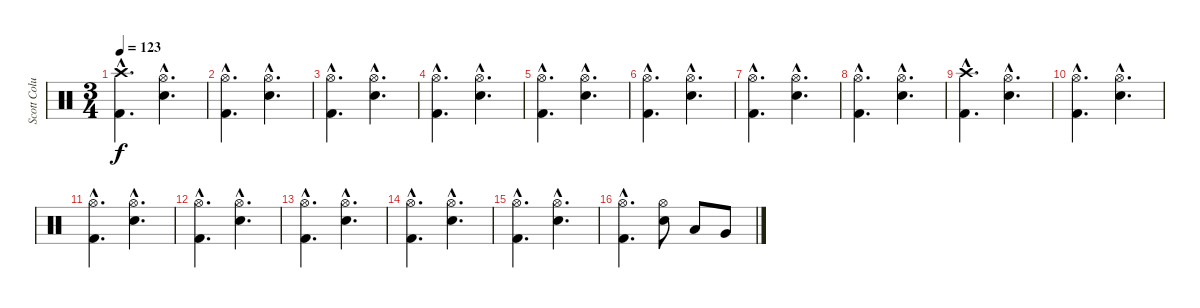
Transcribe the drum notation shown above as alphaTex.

\track ("Scott Columbus" "Scott Colu") {instrument percussion}
\staff {score}
\articulation defaults
\ts (3 4)
\tempo 123
\clef neutral
\ks c
("Crash high (hit)"{hac} "Kick (hit) 2"{hac}).4{d dy f} ("Hi-Hat (open)"{hac} "Snare (hit) 2"{hac}).4{d} |
("Hi-Hat (open)"{hac} "Kick (hit) 2"{hac}).4{d} ("Hi-Hat (open)"{hac} "Snare (hit) 2"{hac}).4{d} |
("Hi-Hat (open)"{hac} "Kick (hit) 2"{hac}).4{d} ("Hi-Hat (open)"{hac} "Snare (hit) 2"{hac}).4{d} |
("Hi-Hat (open)"{hac} "Kick (hit) 2"{hac}).4{d} ("Hi-Hat (open)"{hac} "Snare (hit) 2"{hac}).4{d} |
("Hi-Hat (open)"{hac} "Kick (hit) 2"{hac}).4{d} ("Hi-Hat (open)"{hac} "Snare (hit) 2"{hac}).4{d} |
("Hi-Hat (open)"{hac} "Kick (hit) 2"{hac}).4{d} ("Hi-Hat (open)"{hac} "Snare (hit) 2"{hac}).4{d} |
("Hi-Hat (open)"{hac} "Kick (hit) 2"{hac}).4{d} ("Hi-Hat (open)"{hac} "Snare (hit) 2"{hac}).4{d} |
("Hi-Hat (open)"{hac} "Kick (hit) 2"{hac}).4{d} ("Hi-Hat (open)"{hac} "Snare (hit) 2"{hac}).4{d} |
("Crash high (hit)"{hac} "Kick (hit) 2"{hac}).4{d} ("Hi-Hat (open)"{hac} "Snare (hit) 2"{hac}).4{d} |
("Hi-Hat (open)"{hac} "Kick (hit) 2"{hac}).4{d} ("Hi-Hat (open)"{hac} "Snare (hit) 2"{hac}).4{d} |
("Hi-Hat (open)"{hac} "Kick (hit) 2"{hac}).4{d} ("Hi-Hat (open)"{hac} "Snare (hit) 2"{hac}).4{d} |
("Hi-Hat (open)"{hac} "Kick (hit) 2"{hac}).4{d} ("Hi-Hat (open)"{hac} "Snare (hit) 2"{hac}).4{d} |
("Hi-Hat (open)"{hac} "Kick (hit) 2"{hac}).4{d} ("Hi-Hat (open)"{hac} "Snare (hit) 2"{hac}).4{d} |
("Hi-Hat (open)"{hac} "Kick (hit) 2"{hac}).4{d} ("Hi-Hat (open)"{hac} "Snare (hit) 2"{hac}).4{d} |
("Hi-Hat (open)"{hac} "Kick (hit) 2"{hac}).4{d} ("Hi-Hat (open)"{hac} "Snare (hit) 2"{hac}).4{d} |
("Hi-Hat (open)"{hac} "Kick (hit) 2"{hac}).4{d} ("Hi-Hat (open)" "Snare (hit) 2").8 "Low Tom (hit)".8 "Very Low Tom (hit)".8
